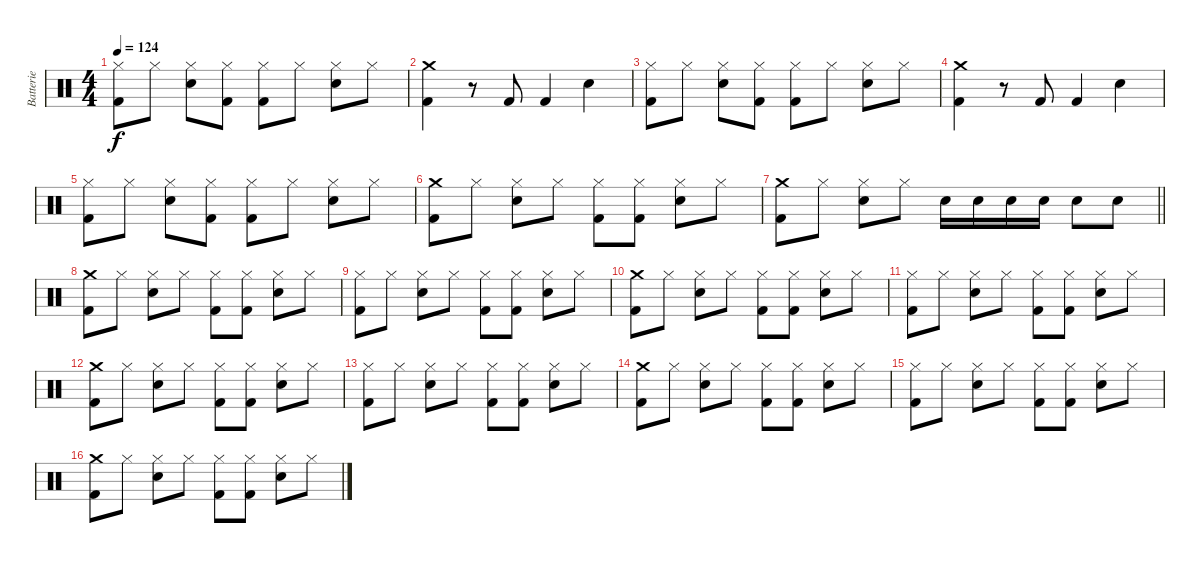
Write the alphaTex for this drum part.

\track ("Batterie" "Batterie") {instrument percussion}
\staff {score}
\articulation defaults
\ts (4 4)
\tempo 124
\clef neutral
\ks c
("Hi-Hat (closed)" "Kick (hit) 2").8{dy f} "Hi-Hat (closed)".8 ("Hi-Hat (closed)" "Snare (hit) 2").8 ("Hi-Hat (closed)" "Kick (hit) 2").8 ("Hi-Hat (closed)" "Kick (hit) 2").8 "Hi-Hat (closed)".8 ("Hi-Hat (closed)" "Snare (hit) 2").8 "Hi-Hat (closed)".8 |
("Crash medium (hit)" "Kick (hit) 2").4 r.8 "Kick (hit) 2".8 "Kick (hit) 2".4 "Snare (hit) 2".4 |
("Hi-Hat (closed)" "Kick (hit) 2").8 "Hi-Hat (closed)".8 ("Hi-Hat (closed)" "Snare (hit) 2").8 ("Hi-Hat (closed)" "Kick (hit) 2").8 ("Hi-Hat (closed)" "Kick (hit) 2").8 "Hi-Hat (closed)".8 ("Hi-Hat (closed)" "Snare (hit) 2").8 "Hi-Hat (closed)".8 |
("Crash medium (hit)" "Kick (hit) 2").4 r.8 "Kick (hit) 2".8 "Kick (hit) 2".4 "Snare (hit) 2".4 |
("Hi-Hat (closed)" "Kick (hit) 2").8 "Hi-Hat (closed)".8 ("Hi-Hat (closed)" "Snare (hit) 2").8 ("Hi-Hat (closed)" "Kick (hit) 2").8 ("Hi-Hat (closed)" "Kick (hit) 2").8 "Hi-Hat (closed)".8 ("Hi-Hat (closed)" "Snare (hit) 2").8 "Hi-Hat (closed)".8 |
("Crash medium (hit)" "Kick (hit) 2").8 "Hi-Hat (closed)".8 ("Hi-Hat (closed)" "Snare (hit) 2").8 "Hi-Hat (closed)".8 ("Hi-Hat (closed)" "Kick (hit) 2").8 ("Hi-Hat (closed)" "Kick (hit) 2").8 ("Hi-Hat (closed)" "Snare (hit) 2").8 "Hi-Hat (closed)".8 |
\barLineRight lightlight
("Crash medium (hit)" "Kick (hit) 2").8 "Hi-Hat (closed)".8 ("Hi-Hat (closed)" "Snare (hit) 2").8 "Hi-Hat (closed)".8 "Snare (hit) 2".16 "Snare (hit) 2".16 "Snare (hit) 2".16 "Snare (hit) 2".16 "Snare (hit) 2".8 "Snare (hit) 2".8 |
("Crash medium (hit)" "Kick (hit) 2").8 "Hi-Hat (closed)".8 ("Hi-Hat (closed)" "Snare (hit) 2").8 "Hi-Hat (closed)".8 ("Hi-Hat (closed)" "Kick (hit) 2").8 ("Hi-Hat (closed)" "Kick (hit) 2").8 ("Hi-Hat (closed)" "Snare (hit) 2").8 "Hi-Hat (closed)".8 |
("Hi-Hat (closed)" "Kick (hit) 2").8 "Hi-Hat (closed)".8 ("Hi-Hat (closed)" "Snare (hit) 2").8 "Hi-Hat (closed)".8 ("Hi-Hat (closed)" "Kick (hit) 2").8 ("Hi-Hat (closed)" "Kick (hit) 2").8 ("Hi-Hat (closed)" "Snare (hit) 2").8 "Hi-Hat (closed)".8 |
("Crash medium (hit)" "Kick (hit) 2").8 "Hi-Hat (closed)".8 ("Hi-Hat (closed)" "Snare (hit) 2").8 "Hi-Hat (closed)".8 ("Hi-Hat (closed)" "Kick (hit) 2").8 ("Hi-Hat (closed)" "Kick (hit) 2").8 ("Hi-Hat (closed)" "Snare (hit) 2").8 "Hi-Hat (closed)".8 |
("Hi-Hat (closed)" "Kick (hit) 2").8 "Hi-Hat (closed)".8 ("Hi-Hat (closed)" "Snare (hit) 2").8 "Hi-Hat (closed)".8 ("Hi-Hat (closed)" "Kick (hit) 2").8 ("Hi-Hat (closed)" "Kick (hit) 2").8 ("Hi-Hat (closed)" "Snare (hit) 2").8 "Hi-Hat (closed)".8 |
("Crash medium (hit)" "Kick (hit) 2").8 "Hi-Hat (closed)".8 ("Hi-Hat (closed)" "Snare (hit) 2").8 "Hi-Hat (closed)".8 ("Hi-Hat (closed)" "Kick (hit) 2").8 ("Hi-Hat (closed)" "Kick (hit) 2").8 ("Hi-Hat (closed)" "Snare (hit) 2").8 "Hi-Hat (closed)".8 |
("Hi-Hat (closed)" "Kick (hit) 2").8 "Hi-Hat (closed)".8 ("Hi-Hat (closed)" "Snare (hit) 2").8 "Hi-Hat (closed)".8 ("Hi-Hat (closed)" "Kick (hit) 2").8 ("Hi-Hat (closed)" "Kick (hit) 2").8 ("Hi-Hat (closed)" "Snare (hit) 2").8 "Hi-Hat (closed)".8 |
("Crash medium (hit)" "Kick (hit) 2").8 "Hi-Hat (closed)".8 ("Hi-Hat (closed)" "Snare (hit) 2").8 "Hi-Hat (closed)".8 ("Hi-Hat (closed)" "Kick (hit) 2").8 ("Hi-Hat (closed)" "Kick (hit) 2").8 ("Hi-Hat (closed)" "Snare (hit) 2").8 "Hi-Hat (closed)".8 |
("Hi-Hat (closed)" "Kick (hit) 2").8 "Hi-Hat (closed)".8 ("Hi-Hat (closed)" "Snare (hit) 2").8 "Hi-Hat (closed)".8 ("Hi-Hat (closed)" "Kick (hit) 2").8 ("Hi-Hat (closed)" "Kick (hit) 2").8 ("Hi-Hat (closed)" "Snare (hit) 2").8 "Hi-Hat (closed)".8 |
("Crash medium (hit)" "Kick (hit) 2").8 "Hi-Hat (closed)".8 ("Hi-Hat (closed)" "Snare (hit) 2").8 "Hi-Hat (closed)".8 ("Hi-Hat (closed)" "Kick (hit) 2").8 ("Hi-Hat (closed)" "Kick (hit) 2").8 ("Hi-Hat (closed)" "Snare (hit) 2").8 "Hi-Hat (closed)".8
